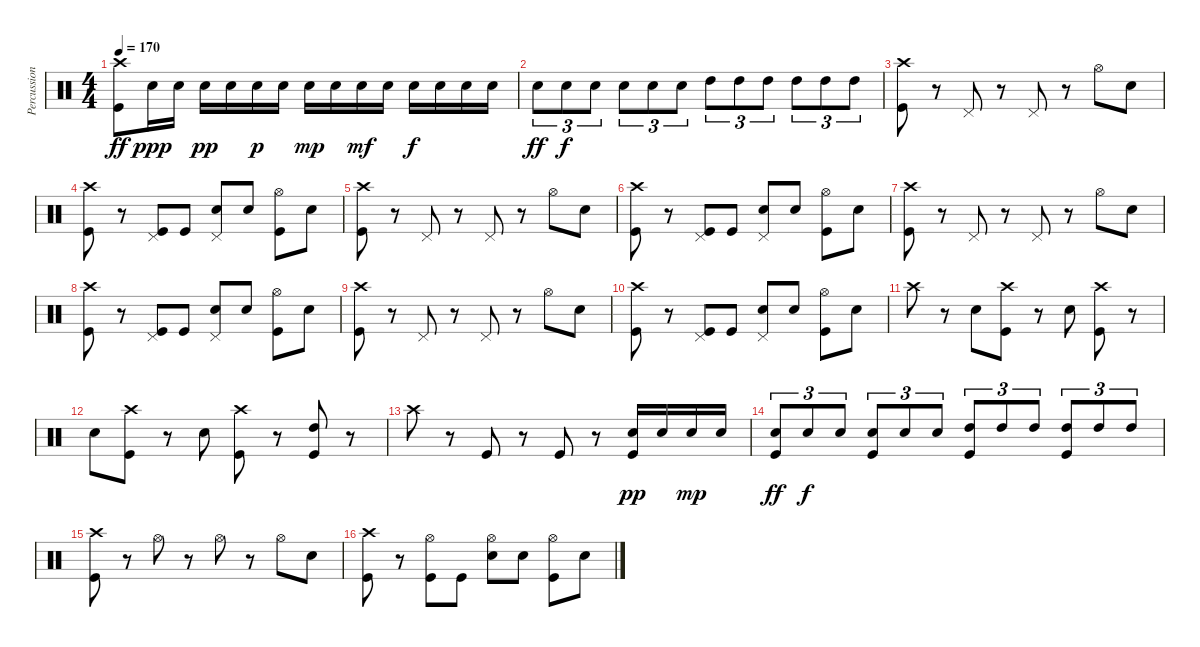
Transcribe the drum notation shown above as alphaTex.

\track ("Percussion" "Percussion") {instrument percussion}
\staff {score}
\articulation defaults
\ts (4 4)
\tempo 170
\clef neutral
\ks c
("Crash high (hit)" "Kick (hit)").8{dy ff} "Snare (hit) 2".16{dy ppp} "Snare (hit) 2".16 "Snare (hit) 2".16{dy pp} "Snare (hit) 2".16 "Snare (hit) 2".16{dy p} "Snare (hit) 2".16 "Snare (hit) 2".16{dy mp} "Snare (hit) 2".16 "Snare (hit) 2".16{dy mf} "Snare (hit) 2".16 "Snare (hit) 2".16{dy f} "Snare (hit) 2".16 "Snare (hit) 2".16 "Snare (hit) 2".16 |
"Snare (hit) 2".8{tu (3 2) dy ff} "Snare (hit) 2".8{tu (3 2) dy f} "Snare (hit) 2".8{tu (3 2)} "Snare (hit) 2".8{tu (3 2)} "Snare (hit) 2".8{tu (3 2)} "Snare (hit) 2".8{tu (3 2)} "High Tom (hit)".8{tu (3 2)} "High Tom (hit)".8{tu (3 2)} "High Tom (hit)".8{tu (3 2)} "High Tom (hit)".8{tu (3 2)} "High Tom (hit)".8{tu (3 2)} "High Tom (hit)".8{tu (3 2)} |
("Crash high (hit)" "Kick (hit)").8 r.8 "Pedal Hi-Hat (hit)".8 r.8 "Pedal Hi-Hat (hit)".8 r.8 "Hi-Hat (open)".8 "Snare (hit) 2".8 |
("Crash high (hit)" "Kick (hit)").8 r.8 ("Pedal Hi-Hat (hit)" "Kick (hit)").8 "Kick (hit)".8 ("Snare (hit) 2" "Pedal Hi-Hat (hit)").8 "Snare (hit) 2".8 ("Hi-Hat (open)" "Kick (hit)").8 "Snare (hit) 2".8 |
("Crash high (hit)" "Kick (hit)").8 r.8 "Pedal Hi-Hat (hit)".8 r.8 "Pedal Hi-Hat (hit)".8 r.8 "Hi-Hat (open)".8 "Snare (hit) 2".8 |
("Crash high (hit)" "Kick (hit)").8 r.8 ("Pedal Hi-Hat (hit)" "Kick (hit)").8 "Kick (hit)".8 ("Snare (hit) 2" "Pedal Hi-Hat (hit)").8 "Snare (hit) 2".8 ("Hi-Hat (open)" "Kick (hit)").8 "Snare (hit) 2".8 |
("Crash high (hit)" "Kick (hit)").8 r.8 "Pedal Hi-Hat (hit)".8 r.8 "Pedal Hi-Hat (hit)".8 r.8 "Hi-Hat (open)".8 "Snare (hit) 2".8 |
("Crash high (hit)" "Kick (hit)").8 r.8 ("Pedal Hi-Hat (hit)" "Kick (hit)").8 "Kick (hit)".8 ("Snare (hit) 2" "Pedal Hi-Hat (hit)").8 "Snare (hit) 2".8 ("Hi-Hat (open)" "Kick (hit)").8 "Snare (hit) 2".8 |
("Crash high (hit)" "Kick (hit)").8 r.8 "Pedal Hi-Hat (hit)".8 r.8 "Pedal Hi-Hat (hit)".8 r.8 "Hi-Hat (open)".8 "Snare (hit) 2".8 |
("Crash high (hit)" "Kick (hit)").8 r.8 ("Pedal Hi-Hat (hit)" "Kick (hit)").8 "Kick (hit)".8 ("Snare (hit) 2" "Pedal Hi-Hat (hit)").8 "Snare (hit) 2".8 ("Hi-Hat (open)" "Kick (hit)").8 "Snare (hit) 2".8 |
"Crash high (hit)".8 r.8 "Snare (hit) 2".8 ("Crash high (hit)" "Kick (hit)").8 r.8 "Snare (hit) 2".8 ("Crash high (hit)" "Kick (hit)").8 r.8 |
"Snare (hit) 2".8 ("Crash high (hit)" "Kick (hit)").8 r.8 "Snare (hit) 2".8 ("Crash high (hit)" "Kick (hit)").8 r.8 ("High Tom (hit)" "Kick (hit)").8 r.8 |
"Crash high (hit)".8 r.8 "Kick (hit)".8 r.8 "Kick (hit)".8 r.8 ("Snare (hit) 2" "Kick (hit)").16{dy pp} "Snare (hit) 2".16 "Snare (hit) 2".16{dy mp} "Snare (hit) 2".16 |
("Snare (hit) 2" "Kick (hit)").8{tu (3 2) dy ff} "Snare (hit) 2".8{tu (3 2) dy f} "Snare (hit) 2".8{tu (3 2)} ("Snare (hit) 2" "Kick (hit)").8{tu (3 2)} "Snare (hit) 2".8{tu (3 2)} "Snare (hit) 2".8{tu (3 2)} ("High Tom (hit)" "Kick (hit)").8{tu (3 2)} "High Tom (hit)".8{tu (3 2)} "High Tom (hit)".8{tu (3 2)} ("High Tom (hit)" "Kick (hit)").8{tu (3 2)} "High Tom (hit)".8{tu (3 2)} "High Tom (hit)".8{tu (3 2)} |
("Crash high (hit)" "Kick (hit)").8 r.8 "Hi-Hat (open)".8 r.8 "Hi-Hat (open)".8 r.8 "Hi-Hat (open)".8 "Snare (hit) 2".8 |
("Crash high (hit)" "Kick (hit)").8 r.8 ("Hi-Hat (open)" "Kick (hit)").8 "Kick (hit)".8 ("Snare (hit) 2" "Hi-Hat (open)").8 "Snare (hit) 2".8 ("Hi-Hat (open)" "Kick (hit)").8 "Snare (hit) 2".8
